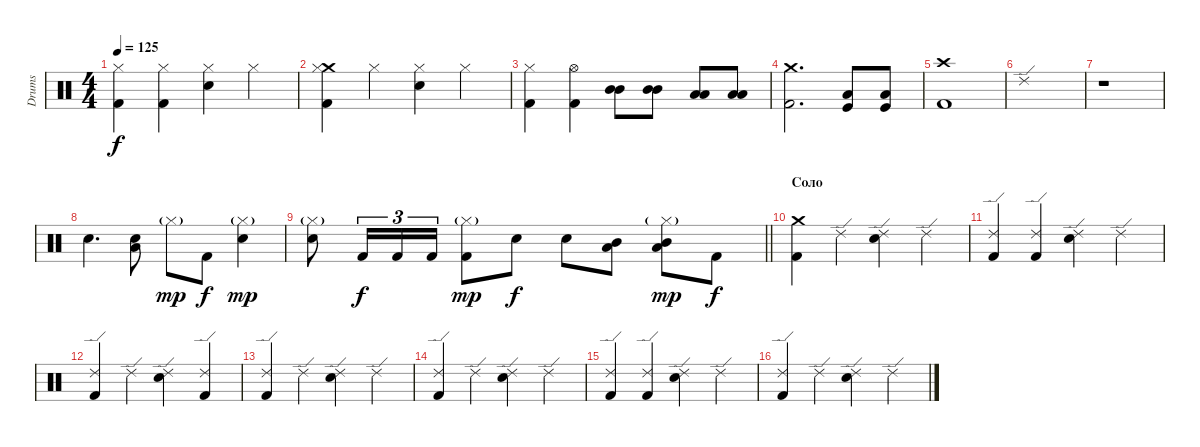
\track ("Drums" "Drums") {instrument percussion}
\staff {score}
\articulation defaults
\ts (4 4)
\tempo 125
\clef neutral
\ks c
("Hi-Hat (closed)" "Kick (hit) 2").4{dy f} ("Hi-Hat (closed)" "Kick (hit) 2").4 ("Hi-Hat (closed)" "Snare (hit) 2").4 "Hi-Hat (closed)".4 |
("Crash medium (hit)" "Hi-Hat (closed)" "Kick (hit) 2").4 "Hi-Hat (closed)".4 ("Hi-Hat (closed)" "Snare (hit) 2").4 "Hi-Hat (closed)".4 |
("Hi-Hat (closed)" "Kick (hit) 2").4 ("Hi-Hat (open)" "Kick (hit) 2").4 ("Mid Tom (hit)" "Mid Tom (hit)").8 ("Mid Tom (hit)" "Mid Tom (hit)").8 ("Low Tom (hit)" "Low Tom (hit)").8 ("Low Tom (hit)" "Low Tom (hit)").8 |
("Crash medium (hit)" "Kick (hit) 2").2{d} ("Low Tom (hit)" "Kick (hit)").8 ("Low Tom (hit)" "Kick (hit)").8 |
("Crash high (hit)" "Kick (hit) 2").1 |
"Ride (edge) 2".1 |
r.1 |
"Snare (hit) 2".4{d} ("Snare (hit) 2" "Low Tom (hit)").8 "Hi-Hat (closed)"{g}.8{dy mp} "Kick (hit) 2".8{dy f} ("Hi-Hat (closed)"{g} "Snare (hit) 2").4{dy mp} |
\barLineRight lightlight
("Hi-Hat (closed)"{g} "Snare (hit) 2").8 "Kick (hit) 2".16{tu (3 2) dy f} "Kick (hit) 2".16{tu (3 2)} "Kick (hit) 2".16{tu (3 2)} ("Hi-Hat (closed)"{g} "Kick (hit) 2").8{dy mp} "Snare (hit) 2".8{dy f} "Snare (hit) 2".8 ("Mid Tom (hit)" "Low Tom (hit)").8 ("Hi-Hat (closed)"{g} "Mid Tom (hit)" "Low Tom (hit)").8{dy mp} "Kick (hit) 2".8{dy f} |
\section ("" "Соло")
("Crash medium (hit)" "Kick (hit) 2").4 "Ride (edge) 2".4 ("Ride (edge) 2" "Snare (hit) 2").4 "Ride (edge) 2".4 |
("Ride (edge) 2" "Kick (hit) 2").4 ("Ride (edge) 2" "Kick (hit) 2").4 ("Ride (edge) 2" "Snare (hit) 2").4 "Ride (edge) 2".4 |
("Ride (edge) 2" "Kick (hit) 2").4 "Ride (edge) 2".4 ("Ride (edge) 2" "Snare (hit) 2").4 ("Ride (edge) 2" "Kick (hit) 2").4 |
("Ride (edge) 2" "Kick (hit) 2").4 "Ride (edge) 2".4 ("Ride (edge) 2" "Snare (hit) 2").4 "Ride (edge) 2".4 |
("Ride (edge) 2" "Kick (hit) 2").4 "Ride (edge) 2".4 ("Ride (edge) 2" "Snare (hit) 2").4 "Ride (edge) 2".4 |
("Ride (edge) 2" "Kick (hit) 2").4 ("Ride (edge) 2" "Kick (hit) 2").4 ("Ride (edge) 2" "Snare (hit) 2").4 "Ride (edge) 2".4 |
("Ride (edge) 2" "Kick (hit) 2").4 "Ride (edge) 2".4 ("Ride (edge) 2" "Snare (hit) 2").4 "Ride (edge) 2".4
